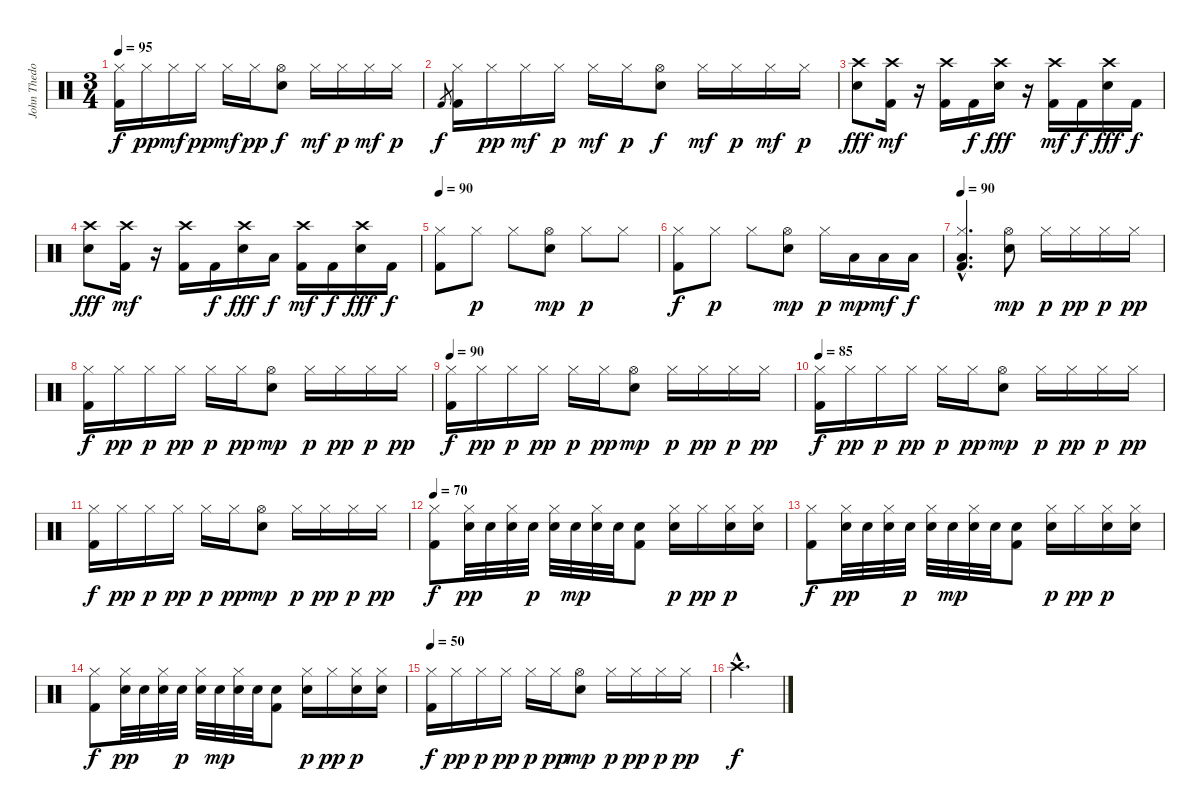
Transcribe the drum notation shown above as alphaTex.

\track ("John Thedore" "John Thedo") {instrument percussion}
\staff {score}
\articulation defaults
\ts (3 4)
\tempo 95
\clef neutral
\ks c
("Kick (hit) 2" "Hi-Hat (closed)").16{dy f} "Hi-Hat (closed)".16{dy pp} "Hi-Hat (closed)".16{dy mf} "Hi-Hat (closed)".16{dy pp} "Hi-Hat (closed)".16{dy mf} "Hi-Hat (closed)".16{dy pp} ("Hi-Hat (open)" "Electric Snare (hit)").8{dy f} "Hi-Hat (closed)".16{dy mf} "Hi-Hat (closed)".16{dy p} "Hi-Hat (closed)".16{dy mf} "Hi-Hat (closed)".16{dy p} |
"Kick (hit) 2".8{gr dy f} ("Kick (hit) 2" "Hi-Hat (closed)").16 "Hi-Hat (closed)".16{dy pp} "Hi-Hat (closed)".16{dy mf} "Hi-Hat (closed)".16{dy p} "Hi-Hat (closed)".16{dy mf} "Hi-Hat (closed)".16{dy p} ("Hi-Hat (open)" "Electric Snare (hit)").8{dy f} "Hi-Hat (closed)".16{dy mf} "Hi-Hat (closed)".16{dy p} "Hi-Hat (closed)".16{dy mf} "Hi-Hat (closed)".16{dy p} |
("Crash high (hit)" "Electric Snare (hit)").8{dy fff} ("Crash high (hit)" "Kick (hit) 2").16{dy mf} r.16 ("Crash high (hit)" "Kick (hit) 2").16 "Kick (hit) 2".16{dy f} ("Crash high (hit)" "Electric Snare (hit)").16{dy fff} r.16 ("Crash high (hit)" "Kick (hit) 2").16{dy mf} "Kick (hit) 2".16{dy f} ("Crash high (hit)" "Electric Snare (hit)").16{dy fff} "Kick (hit) 2".16{dy f} |
("Crash high (hit)" "Electric Snare (hit)").8{dy fff} ("Crash high (hit)" "Kick (hit) 2").16{dy mf} r.16 ("Crash high (hit)" "Kick (hit) 2").16 "Kick (hit) 2".16{dy f} ("Crash high (hit)" "Electric Snare (hit)").16{dy fff} "Low Tom (hit)".16{dy f} ("Crash high (hit)" "Kick (hit) 2").16{dy mf} "Kick (hit) 2".16{dy f} ("Crash high (hit)" "Electric Snare (hit)").16{dy fff} "Kick (hit) 2".16{dy f} |
\tempo 90
("Kick (hit) 2" "Hi-Hat (closed)").8{volume 12} "Hi-Hat (closed)".8{dy p} "Hi-Hat (closed)".8 ("Hi-Hat (open)" "Electric Snare (hit)").8{dy mp} "Hi-Hat (closed)".8{dy p} "Hi-Hat (closed)".8 |
("Kick (hit) 2" "Hi-Hat (closed)").8{dy f} "Hi-Hat (closed)".8{dy p} "Hi-Hat (closed)".8 ("Hi-Hat (open)" "Electric Snare (hit)").8{dy mp} "Hi-Hat (closed)".16{dy p} "Low Tom (hit)".16{dy mp} "Low Tom (hit)".16{dy mf} "Low Tom (hit)".16{dy f} |
\tempo 90
("Low Tom (hit)"{hac} "Kick (hit) 2"{hac} "Hi-Hat (closed)"{hac}).4{d volume 12} ("Hi-Hat (open)" "Electric Snare (hit)").8{dy mp} "Hi-Hat (closed)".16{dy p} "Hi-Hat (closed)".16{dy pp} "Hi-Hat (closed)".16{dy p} "Hi-Hat (closed)".16{dy pp} |
("Kick (hit) 2" "Hi-Hat (closed)").16{dy f} "Hi-Hat (closed)".16{dy pp} "Hi-Hat (closed)".16{dy p} "Hi-Hat (closed)".16{dy pp} "Hi-Hat (closed)".16{dy p} "Hi-Hat (closed)".16{dy pp} ("Hi-Hat (open)" "Electric Snare (hit)").8{dy mp} "Hi-Hat (closed)".16{dy p} "Hi-Hat (closed)".16{dy pp} "Hi-Hat (closed)".16{dy p} "Hi-Hat (closed)".16{dy pp} |
\tempo 90
("Kick (hit) 2" "Hi-Hat (closed)").16{dy f volume 12} "Hi-Hat (closed)".16{dy pp} "Hi-Hat (closed)".16{dy p} "Hi-Hat (closed)".16{dy pp} "Hi-Hat (closed)".16{dy p} "Hi-Hat (closed)".16{dy pp} ("Hi-Hat (open)" "Electric Snare (hit)").8{dy mp} "Hi-Hat (closed)".16{dy p} "Hi-Hat (closed)".16{dy pp} "Hi-Hat (closed)".16{dy p} "Hi-Hat (closed)".16{dy pp} |
\tempo 85
("Kick (hit) 2" "Hi-Hat (closed)").16{dy f} "Hi-Hat (closed)".16{dy pp} "Hi-Hat (closed)".16{dy p} "Hi-Hat (closed)".16{dy pp} "Hi-Hat (closed)".16{dy p} "Hi-Hat (closed)".16{dy pp} ("Hi-Hat (open)" "Electric Snare (hit)").8{dy mp} "Hi-Hat (closed)".16{dy p} "Hi-Hat (closed)".16{dy pp} "Hi-Hat (closed)".16{dy p} "Hi-Hat (closed)".16{dy pp} |
("Kick (hit) 2" "Hi-Hat (closed)").16{dy f} "Hi-Hat (closed)".16{dy pp} "Hi-Hat (closed)".16{dy p} "Hi-Hat (closed)".16{dy pp} "Hi-Hat (closed)".16{dy p} "Hi-Hat (closed)".16{dy pp} ("Hi-Hat (open)" "Electric Snare (hit)").8{dy mp} "Hi-Hat (closed)".16{dy p} "Hi-Hat (closed)".16{dy pp} "Hi-Hat (closed)".16{dy p} "Hi-Hat (closed)".16{dy pp} |
\tempo 70
("Kick (hit) 2" "Hi-Hat (closed)").8{dy f volume 12} ("Hi-Hat (closed)" "Electric Snare (hit)").32{dy pp} "Electric Snare (hit)".32 ("Hi-Hat (closed)" "Electric Snare (hit)").32 "Electric Snare (hit)".32{dy p} ("Hi-Hat (closed)" "Electric Snare (hit)").32 "Electric Snare (hit)".32{dy mp} ("Hi-Hat (closed)" "Electric Snare (hit)").32 "Electric Snare (hit)".32 ("Kick (hit) 2" "Electric Snare (hit)").8 ("Hi-Hat (closed)" "Electric Snare (hit)").16{dy p} "Hi-Hat (closed)".16{dy pp} ("Hi-Hat (closed)" "Electric Snare (hit)").16{dy p} ("Hi-Hat (closed)" "Electric Snare (hit)").16 |
("Kick (hit) 2" "Hi-Hat (closed)").8{dy f volume 12} ("Hi-Hat (closed)" "Electric Snare (hit)").32{dy pp} "Electric Snare (hit)".32 ("Hi-Hat (closed)" "Electric Snare (hit)").32 "Electric Snare (hit)".32{dy p} ("Hi-Hat (closed)" "Electric Snare (hit)").32 "Electric Snare (hit)".32{dy mp} ("Hi-Hat (closed)" "Electric Snare (hit)").32 "Electric Snare (hit)".32 ("Kick (hit) 2" "Electric Snare (hit)").8 ("Hi-Hat (closed)" "Electric Snare (hit)").16{dy p} "Hi-Hat (closed)".16{dy pp} ("Hi-Hat (closed)" "Electric Snare (hit)").16{dy p} ("Hi-Hat (closed)" "Electric Snare (hit)").16 |
("Kick (hit) 2" "Hi-Hat (closed)").8{dy f volume 12} ("Hi-Hat (closed)" "Electric Snare (hit)").32{dy pp} "Electric Snare (hit)".32 ("Hi-Hat (closed)" "Electric Snare (hit)").32 "Electric Snare (hit)".32{dy p} ("Hi-Hat (closed)" "Electric Snare (hit)").32 "Electric Snare (hit)".32{dy mp} ("Hi-Hat (closed)" "Electric Snare (hit)").32 "Electric Snare (hit)".32 ("Kick (hit) 2" "Electric Snare (hit)").8 ("Hi-Hat (closed)" "Electric Snare (hit)").16{dy p} "Hi-Hat (closed)".16{dy pp} ("Hi-Hat (closed)" "Electric Snare (hit)").16{dy p} ("Hi-Hat (closed)" "Electric Snare (hit)").16 |
\tempo 50
("Kick (hit) 2" "Hi-Hat (closed)").16{dy f} "Hi-Hat (closed)".16{dy pp} "Hi-Hat (closed)".16{dy p} "Hi-Hat (closed)".16{dy pp} "Hi-Hat (closed)".16{dy p} "Hi-Hat (closed)".16{dy pp} ("Hi-Hat (open)" "Electric Snare (hit)").8{dy mp} "Hi-Hat (closed)".16{dy p} "Hi-Hat (closed)".16{dy pp} "Hi-Hat (closed)".16{dy p} "Hi-Hat (closed)".16{dy pp} |
"Crash high (hit)"{hac}.2{d dy f}
